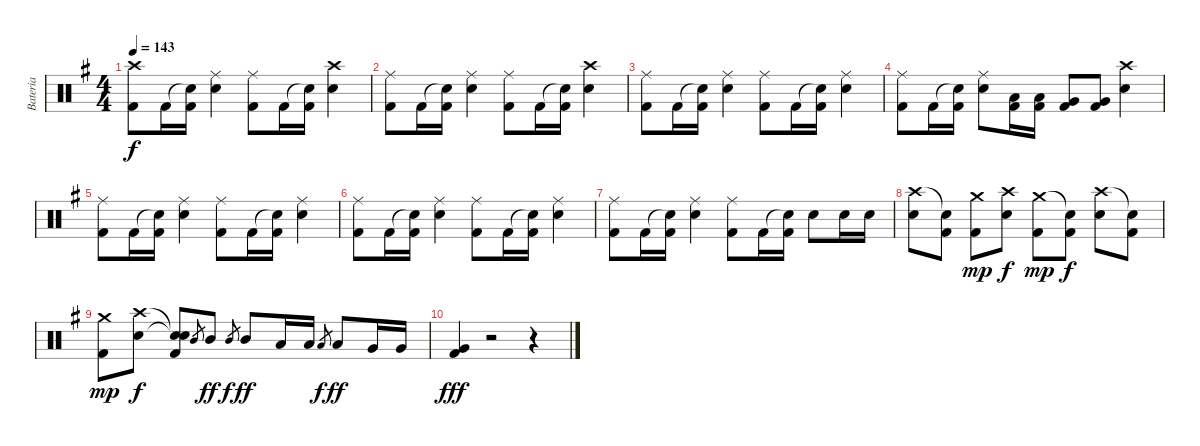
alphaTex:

\track ("Bateria" "Bateria") {instrument percussion}
\staff {score}
\articulation defaults
\ts (4 4)
\tempo 143
\clef neutral
\ks g
("Crash high (hit)" "Kick (hit) 2").8{dy f} "Kick (hit) 2".16 ("Snare (hit)"{t} "Kick (hit) 2").16 ("Ride (middle)" "Electric Snare (hit)").4 ("Ride (middle)" "Kick (hit) 2").8 "Kick (hit) 2".16 ("Snare (hit)"{t} "Kick (hit) 2").16 ("Crash high (hit)" "Electric Snare (hit)").4 |
("Ride (middle)" "Kick (hit) 2").8 "Kick (hit) 2".16 ("Snare (hit)"{t} "Kick (hit) 2").16 ("Ride (middle)" "Electric Snare (hit)").4 ("Ride (middle)" "Kick (hit) 2").8 "Kick (hit) 2".16 ("Snare (hit)"{t} "Kick (hit) 2").16 ("Crash high (hit)" "Electric Snare (hit)").4 |
("Ride (middle)" "Kick (hit) 2").8 "Kick (hit) 2".16 ("Snare (hit)"{t} "Kick (hit) 2").16 ("Ride (middle)" "Electric Snare (hit)").4 ("Ride (middle)" "Kick (hit) 2").8 "Kick (hit) 2".16 ("Snare (hit)"{t} "Kick (hit) 2").16 ("Ride (middle)" "Electric Snare (hit)").4 |
("Ride (middle)" "Kick (hit) 2").8 "Kick (hit) 2".16 ("Snare (hit)"{t} "Kick (hit) 2").16 ("Ride (middle)" "Electric Snare (hit)").8 ("Low Tom (hit)" "Kick (hit) 2").16 ("Low Tom (hit)" "Kick (hit) 2").16 ("Very Low Tom (hit)" "Kick (hit) 2").8 ("Very Low Tom (hit)" "Kick (hit) 2").8 ("Crash high (hit)" "Electric Snare (hit)").4 |
("Ride (middle)" "Kick (hit) 2").8 "Kick (hit) 2".16 ("Snare (hit)"{t} "Kick (hit) 2").16 ("Ride (middle)" "Electric Snare (hit)").4 ("Ride (middle)" "Kick (hit) 2").8 "Kick (hit) 2".16 ("Snare (hit)"{t} "Kick (hit) 2").16 ("Ride (middle)" "Electric Snare (hit)").4 |
("Ride (middle)" "Kick (hit) 2").8 "Kick (hit) 2".16 ("Snare (hit)"{t} "Kick (hit) 2").16 ("Ride (middle)" "Electric Snare (hit)").4 ("Ride (middle)" "Kick (hit) 2").8 "Kick (hit) 2".16 ("Snare (hit)"{t} "Kick (hit) 2").16 ("Ride (middle)" "Electric Snare (hit)").4 |
("Ride (middle)" "Kick (hit) 2").8 "Kick (hit) 2".16 ("Snare (hit)"{t} "Kick (hit) 2").16 ("Ride (middle)" "Electric Snare (hit)").4 ("Ride (middle)" "Kick (hit) 2").8 "Kick (hit) 2".16 ("Snare (hit)"{t} "Kick (hit) 2").16 "Electric Snare (hit)".8 "Electric Snare (hit)".16 "Electric Snare (hit)".16 |
("Crash high (hit)" "Electric Snare (hit)").8 ("Snare (hit)"{t} "Kick (hit) 2").8 ("Crash medium (hit)" "Kick (hit) 2").8{dy mp} ("Crash high (hit)" "Electric Snare (hit)").8{dy f} ("Crash medium (hit)" "Kick (hit) 2").8{dy mp} ("Snare (hit)"{t} "Kick (hit) 2").8{dy f} ("Crash high (hit)" "Electric Snare (hit)").8 ("Snare (hit)"{t} "Kick (hit) 2").8 |
("Crash medium (hit)" "Kick (hit) 2").8{dy mp} ("Crash high (hit)" "Electric Snare (hit)").8{dy f} ("Snare (hit)"{t} "Snare (hit)"{t} "Kick (hit) 2").8 "Mid Tom (hit)".8{gr} "Mid Tom (hit)".8{dy ff} "Mid Tom (hit)".8{gr dy f} "Mid Tom (hit)".8{dy ff} "Low Tom (hit)".16 "Low Tom (hit)".16 "Low Tom (hit)".8{gr dy f} "Low Tom (hit)".8{dy ff} "Very Low Tom (hit)".16 "Very Low Tom (hit)".16 |
("Very Low Tom (hit)" "Kick (hit) 2").4{dy fff} r.2 r.4
